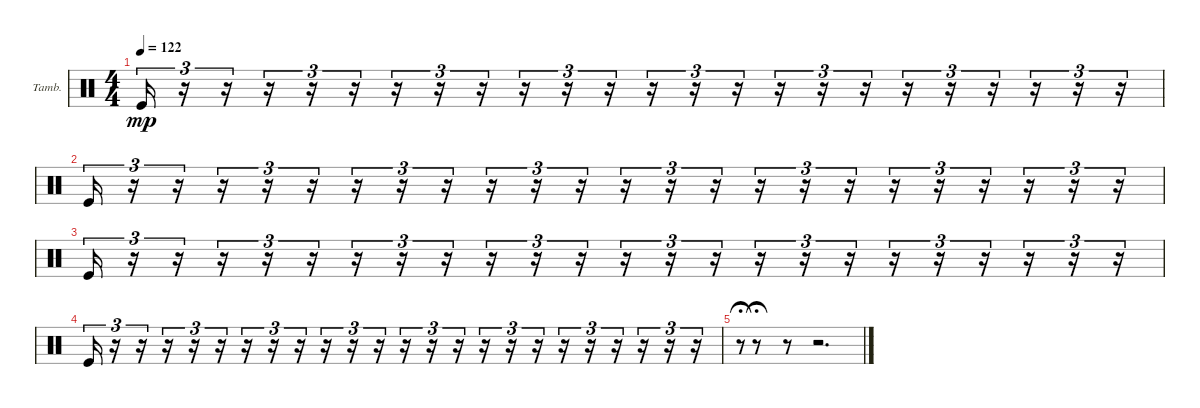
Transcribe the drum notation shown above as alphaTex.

\bracketExtendMode groupsimilarinstruments
\firstSystemTrackNameOrientation horizontal
\otherSystemsTrackNameOrientation horizontal
\track ("Tambourine" "Tamb.") {instrument percussion}
\staff {score}
\articulation defaults
\ts (4 4)
\tempo 122
\clef neutral
\ks c "Kick (hit)".16{tu (3 2) dy mp}
r.16{tu (3 2)} r.16{tu (3 2)} r.16{tu (3 2)} r.16{tu (3 2)} r.16{tu (3 2)} r.16{tu (3 2)} r.16{tu (3 2)} r.16{tu (3 2)} r.16{tu (3 2)} r.16{tu (3 2)} r.16{tu (3 2)} r.16{tu (3 2)} r.16{tu (3 2)} r.16{tu (3 2)} r.16{tu (3 2)} r.16{tu (3 2)} r.16{tu (3 2)} r.16{tu (3 2)} r.16{tu (3 2)} r.16{tu (3 2)} r.16{tu (3 2)} r.16{tu (3 2)} r.16{tu (3 2)} |
"Kick (hit)".16{tu (3 2)} r.16{tu (3 2)} r.16{tu (3 2)} r.16{tu (3 2)} r.16{tu (3 2)} r.16{tu (3 2)} r.16{tu (3 2)} r.16{tu (3 2)} r.16{tu (3 2)} r.16{tu (3 2)} r.16{tu (3 2)} r.16{tu (3 2)} r.16{tu (3 2)} r.16{tu (3 2)} r.16{tu (3 2)} r.16{tu (3 2)} r.16{tu (3 2)} r.16{tu (3 2)} r.16{tu (3 2)} r.16{tu (3 2)} r.16{tu (3 2)} r.16{tu (3 2)} r.16{tu (3 2)} r.16{tu (3 2)} |
"Kick (hit)".16{tu (3 2)} r.16{tu (3 2)} r.16{tu (3 2)} r.16{tu (3 2)} r.16{tu (3 2)} r.16{tu (3 2)} r.16{tu (3 2)} r.16{tu (3 2)} r.16{tu (3 2)} r.16{tu (3 2)} r.16{tu (3 2)} r.16{tu (3 2)} r.16{tu (3 2)} r.16{tu (3 2)} r.16{tu (3 2)} r.16{tu (3 2)} r.16{tu (3 2)} r.16{tu (3 2)} r.16{tu (3 2)} r.16{tu (3 2)} r.16{tu (3 2)} r.16{tu (3 2)} r.16{tu (3 2)} r.16{tu (3 2)} |
"Kick (hit)".16{tu (3 2)} r.16{tu (3 2)} r.16{tu (3 2)} r.16{tu (3 2)} r.16{tu (3 2)} r.16{tu (3 2)} r.16{tu (3 2)} r.16{tu (3 2)} r.16{tu (3 2)} r.16{tu (3 2)} r.16{tu (3 2)} r.16{tu (3 2)} r.16{tu (3 2)} r.16{tu (3 2)} r.16{tu (3 2)} r.16{tu (3 2)} r.16{tu (3 2)} r.16{tu (3 2)} r.16{tu (3 2)} r.16{tu (3 2)} r.16{tu (3 2)} r.16{tu (3 2)} r.16{tu (3 2)} r.16{tu (3 2)} |
r.8{gr fermata (medium 0.5)} r.8{fermata (medium 0.5)} r.8 r.2{d}
